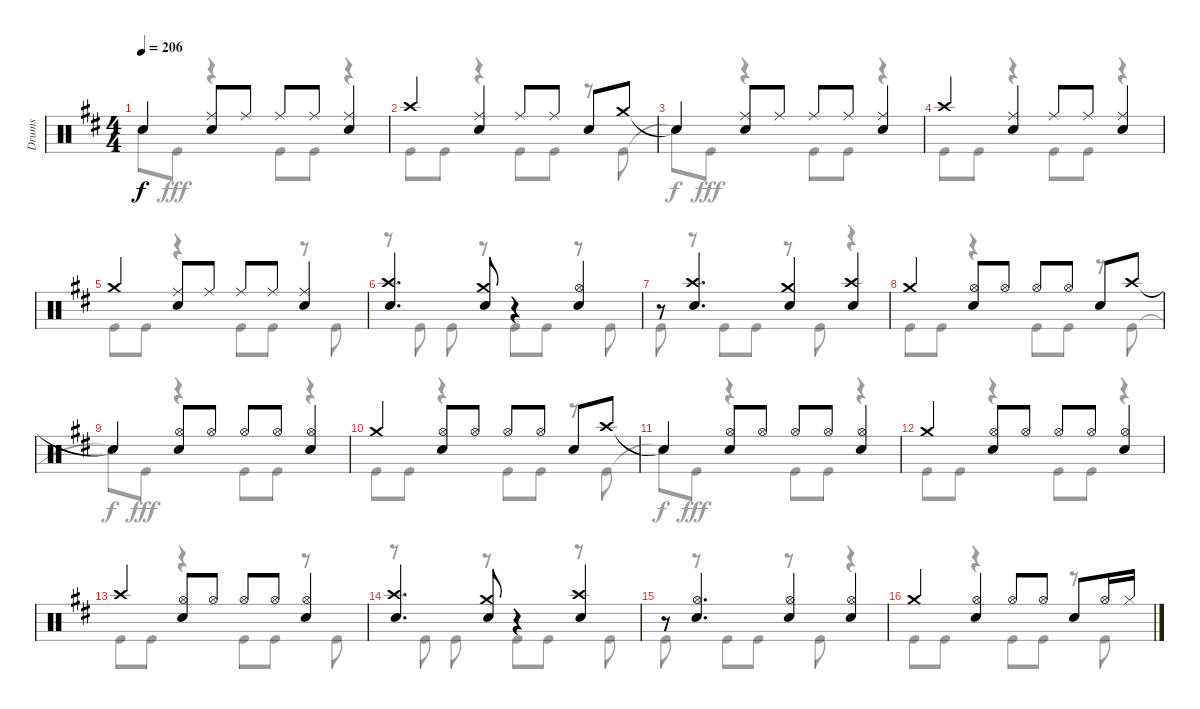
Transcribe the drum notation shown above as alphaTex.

\track ("Drums" "Drums") {instrument percussion}
\staff {score}
\articulation defaults
\voice
\ts (4 4)
\tempo 206
\clef neutral
\ks d "Snare (hit)"{t}.4{dy f}
("Ride (middle)" "Snare (hit) 2").8 "Ride (middle)".8 "Ride (middle)".8 "Ride (middle)".8 ("Ride (middle)" "Snare (hit) 2").4 |
"Crash high (hit)".4 ("Ride (middle)" "Snare (hit) 2").4 "Ride (middle)".8 "Ride (middle)".8 "Snare (hit) 2".8 "Crash medium (hit)".8 |
"Snare (hit)"{t}.4 ("Ride (middle)" "Snare (hit) 2").8 "Ride (middle)".8 "Ride (middle)".8 "Ride (middle)".8 ("Ride (middle)" "Snare (hit) 2").4 |
"Crash high (hit)".4 ("Ride (middle)" "Snare (hit) 2").4 "Ride (middle)".8 "Ride (middle)".8 ("Ride (middle)" "Snare (hit) 2").4 |
"Crash medium (hit)".4 ("Ride (middle)" "Snare (hit) 2").8 "Ride (middle)".8 "Ride (middle)".8 "Ride (middle)".8 ("Ride (middle)" "Snare (hit) 2").4 |
("Crash high (hit)" "Snare (hit) 2").4{d} ("Crash medium (hit)" "Snare (hit) 2").8 r.4 ("Hi-Hat (open)" "Snare (hit) 2").4 |
r.8 ("Crash high (hit)" "Snare (hit) 2").4{d} ("Crash medium (hit)" "Snare (hit) 2").4 ("Crash high (hit)" "Snare (hit) 2").4 |
"Crash medium (hit)".4 ("Hi-Hat (open)" "Snare (hit) 2").8 "Hi-Hat (open)".8 "Hi-Hat (open)".8 "Hi-Hat (open)".8 "Snare (hit) 2".8 "Crash high (hit)".8 |
"Snare (hit)"{t}.4 ("Hi-Hat (open)" "Snare (hit) 2").8 "Hi-Hat (open)".8 "Hi-Hat (open)".8 "Hi-Hat (open)".8 ("Hi-Hat (open)" "Snare (hit) 2").4 |
"Crash medium (hit)".4 ("Hi-Hat (open)" "Snare (hit) 2").8 "Hi-Hat (open)".8 "Hi-Hat (open)".8 "Hi-Hat (open)".8 "Snare (hit) 2".8 "Crash high (hit)".8 |
"Snare (hit)"{t}.4 ("Hi-Hat (open)" "Snare (hit) 2").8 "Hi-Hat (open)".8 "Hi-Hat (open)".8 "Hi-Hat (open)".8 ("Hi-Hat (open)" "Snare (hit) 2").4 |
"Crash medium (hit)".4 ("Hi-Hat (open)" "Snare (hit) 2").8 "Hi-Hat (open)".8 "Hi-Hat (open)".8 "Hi-Hat (open)".8 ("Hi-Hat (open)" "Snare (hit) 2").4 |
"Crash high (hit)".4 ("Hi-Hat (open)" "Snare (hit) 2").8 "Hi-Hat (open)".8 "Hi-Hat (open)".8 "Hi-Hat (open)".8 ("Hi-Hat (open)" "Snare (hit) 2").4 |
("Crash high (hit)" "Snare (hit) 2").4{d} ("Crash medium (hit)" "Snare (hit) 2").8 r.4 ("Crash high (hit)" "Snare (hit) 2").4 |
r.8 ("Hi-Hat (open)" "Snare (hit) 2").4{d} ("Hi-Hat (open)" "Snare (hit) 2").4 ("Hi-Hat (open)" "Snare (hit) 2").4 |
"Crash medium (hit)".4 ("Hi-Hat (open)" "Snare (hit) 2").4 "Hi-Hat (open)".8 "Hi-Hat (open)".8 "Snare (hit) 2".8 "Hi-Hat (open)".16 "Hi-Hat (closed)".16
\voice
\clef neutral
\ottava regular
\simile none
\ks d "Snare (hit)"{t}.8{dy f} "Kick (hit)".8{dy fff}
r.4 "Kick (hit)".8 "Kick (hit)".8 r.4 |
"Kick (hit)".8 "Kick (hit)".8 r.4 "Kick (hit)".8 "Kick (hit)".8 r.8 "Kick (hit)".8 |
"Snare (hit)"{t}.8{dy f} "Kick (hit)".8{dy fff} r.4 "Kick (hit)".8 "Kick (hit)".8 r.4 |
"Kick (hit)".8 "Kick (hit)".8 r.4 "Kick (hit)".8 "Kick (hit)".8 r.4 |
"Kick (hit)".8 "Kick (hit)".8 r.4 "Kick (hit)".8 "Kick (hit)".8 r.8 "Kick (hit)".8 |
r.8 "Kick (hit)".8 "Kick (hit)".8 r.8 "Kick (hit)".8 "Kick (hit)".8 r.8 "Kick (hit)".8 |
"Kick (hit)".8 r.8 "Kick (hit)".8 "Kick (hit)".8 r.8 "Kick (hit)".8 r.4 |
"Kick (hit)".8 "Kick (hit)".8 r.4 "Kick (hit)".8 "Kick (hit)".8 r.8 "Kick (hit)".8 |
"Snare (hit)"{t}.8{dy f} "Kick (hit)".8{dy fff} r.4 "Kick (hit)".8 "Kick (hit)".8 r.4 |
"Kick (hit)".8 "Kick (hit)".8 r.4 "Kick (hit)".8 "Kick (hit)".8 r.8 "Kick (hit)".8 |
"Snare (hit)"{t}.8{dy f} "Kick (hit)".8{dy fff} r.4 "Kick (hit)".8 "Kick (hit)".8 r.4 |
"Kick (hit)".8 "Kick (hit)".8 r.4 "Kick (hit)".8 "Kick (hit)".8 r.4 |
"Kick (hit)".8 "Kick (hit)".8 r.4 "Kick (hit)".8 "Kick (hit)".8 r.8 "Kick (hit)".8 |
r.8 "Kick (hit)".8 "Kick (hit)".8 r.8 "Kick (hit)".8 "Kick (hit)".8 r.8 "Kick (hit)".8 |
"Kick (hit)".8 r.8 "Kick (hit)".8 "Kick (hit)".8 r.8 "Kick (hit)".8 r.4 |
"Kick (hit)".8 "Kick (hit)".8 r.4 "Kick (hit)".8 "Kick (hit)".8 r.8 "Kick (hit)".8
